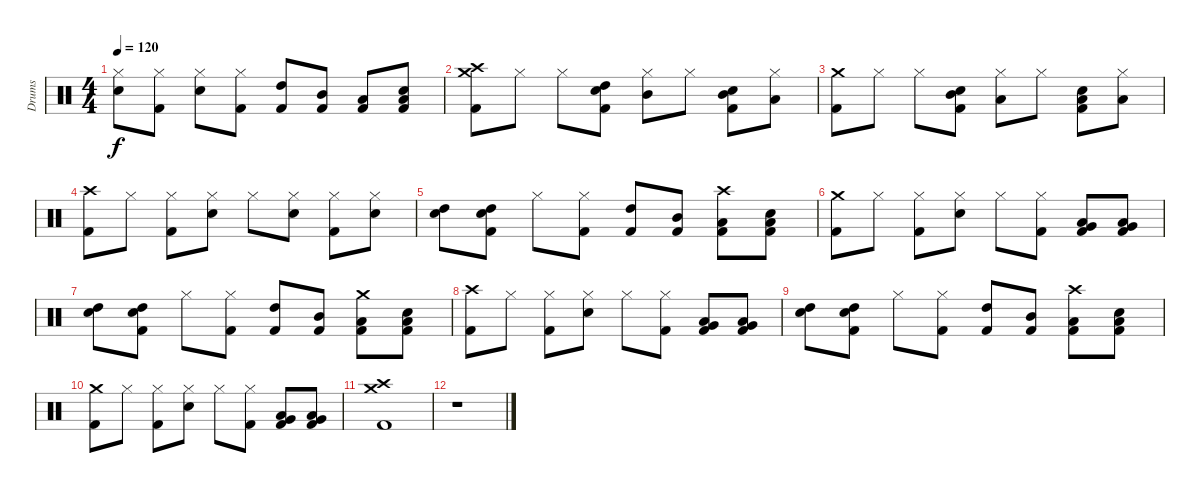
\track ("Drums" "Drums") {instrument percussion}
\staff {score}
\articulation defaults
\ts (4 4)
\tempo 120
\clef neutral
\ks c
("Hi-Hat (closed)" "Snare (hit) 2").8{dy f} ("Hi-Hat (closed)" "Kick (hit) 2").8 ("Hi-Hat (closed)" "Snare (hit) 2").8 ("Hi-Hat (closed)" "Kick (hit) 2").8 ("High Tom (hit)" "Kick (hit) 2").8 ("Mid Tom (hit)" "Kick (hit) 2").8 ("Low Tom (hit)" "Kick (hit) 2").8 ("Low Floor Tom (hit)" "Snare (hit) 2" "Kick (hit) 2").8 |
("Crash medium (hit)" "Crash high (hit)" "Kick (hit) 2").8 "Hi-Hat (closed)".8 "Hi-Hat (closed)".8 ("High Tom (hit)" "Snare (hit) 2" "Kick (hit) 2").8 ("Hi-Hat (closed)" "Mid Tom (hit)").8 "Hi-Hat (closed)".8 ("Mid Tom (hit)" "Snare (hit) 2" "Kick (hit) 2").8 ("Hi-Hat (closed)" "Low Tom (hit)").8 |
("Crash medium (hit)" "Kick (hit) 2").8 "Hi-Hat (closed)".8 "Hi-Hat (closed)".8 ("Mid Tom (hit)" "Snare (hit) 2" "Kick (hit) 2").8 ("Hi-Hat (closed)" "Low Tom (hit)").8 "Hi-Hat (closed)".8 ("Low Tom (hit)" "Snare (hit) 2" "Kick (hit) 2").8 ("Hi-Hat (closed)" "Low Floor Tom (hit)").8 |
("Crash high (hit)" "Kick (hit) 2").8 "Hi-Hat (closed)".8 ("Hi-Hat (closed)" "Kick (hit) 2").8 ("Hi-Hat (closed)" "Snare (hit) 2").8 "Hi-Hat (closed)".8 ("Hi-Hat (closed)" "Snare (hit) 2").8 ("Hi-Hat (closed)" "Kick (hit) 2").8 ("Hi-Hat (closed)" "Snare (hit) 2").8 |
("Snare (hit) 2" "High Tom (hit)").8 ("Snare (hit) 2" "High Tom (hit)" "Kick (hit) 2").8 "Hi-Hat (closed)".8 ("Hi-Hat (closed)" "Kick (hit) 2").8 ("High Tom (hit)" "Kick (hit) 2").8 ("Mid Tom (hit)" "Kick (hit) 2").8 ("Crash high (hit)" "Low Tom (hit)" "Kick (hit) 2").8 ("Low Floor Tom (hit)" "Snare (hit) 2" "Kick (hit) 2").8 |
("Crash medium (hit)" "Kick (hit) 2").8 "Hi-Hat (closed)".8 ("Hi-Hat (closed)" "Kick (hit) 2").8 ("Hi-Hat (closed)" "Snare (hit) 2").8 "Hi-Hat (closed)".8 ("Hi-Hat (closed)" "Kick (hit) 2").8 ("Low Floor Tom (hit)" "Very Low Tom (hit)" "Kick (hit) 2").8 ("Low Floor Tom (hit)" "Very Low Tom (hit)" "Kick (hit) 2").8 |
("Snare (hit) 2" "High Tom (hit)").8 ("Snare (hit) 2" "High Tom (hit)" "Kick (hit) 2").8 "Hi-Hat (closed)".8 ("Hi-Hat (closed)" "Kick (hit) 2").8 ("High Tom (hit)" "Kick (hit) 2").8 ("Mid Tom (hit)" "Kick (hit) 2").8 ("Crash medium (hit)" "Low Tom (hit)" "Kick (hit) 2").8 ("Low Floor Tom (hit)" "Snare (hit) 2" "Kick (hit) 2").8 |
("Crash high (hit)" "Kick (hit) 2").8 "Hi-Hat (closed)".8 ("Hi-Hat (closed)" "Kick (hit) 2").8 ("Hi-Hat (closed)" "Snare (hit) 2").8 "Hi-Hat (closed)".8 ("Hi-Hat (closed)" "Kick (hit) 2").8 ("Low Floor Tom (hit)" "Very Low Tom (hit)" "Kick (hit) 2").8 ("Low Floor Tom (hit)" "Very Low Tom (hit)" "Kick (hit) 2").8 |
("Snare (hit) 2" "High Tom (hit)").8 ("Snare (hit) 2" "High Tom (hit)" "Kick (hit) 2").8 "Hi-Hat (closed)".8 ("Hi-Hat (closed)" "Kick (hit) 2").8 ("High Tom (hit)" "Kick (hit) 2").8 ("Mid Tom (hit)" "Kick (hit) 2").8 ("Crash high (hit)" "Low Tom (hit)" "Kick (hit) 2").8 ("Low Floor Tom (hit)" "Snare (hit) 2" "Kick (hit) 2").8 |
("Crash medium (hit)" "Kick (hit) 2").8 "Hi-Hat (closed)".8 ("Hi-Hat (closed)" "Kick (hit) 2").8 ("Hi-Hat (closed)" "Snare (hit) 2").8 "Hi-Hat (closed)".8 ("Hi-Hat (closed)" "Kick (hit) 2").8 ("Low Floor Tom (hit)" "Very Low Tom (hit)" "Kick (hit) 2").8 ("Low Floor Tom (hit)" "Very Low Tom (hit)" "Kick (hit) 2").8 |
("Crash medium (hit)" "Crash high (hit)" "Kick (hit) 2").1 |
r.1
